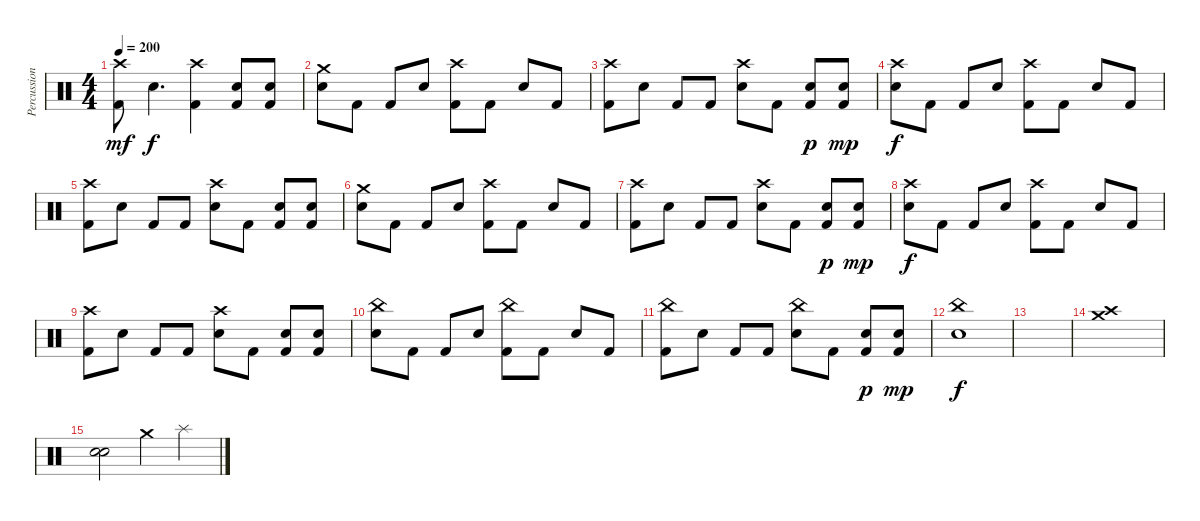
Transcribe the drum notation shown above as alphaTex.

\track ("Percussions" "Percussion") {instrument percussion}
\staff {score}
\articulation defaults
\ts (4 4)
\tempo 200
\clef neutral
\ks c
("Crash high (hit)" "Kick (hit) 2").8{dy mf} "Electric Snare (hit)".4{d dy f} ("Crash high (hit)" "Kick (hit) 2").4 ("Electric Snare (hit)" "Kick (hit) 2").8 ("Electric Snare (hit)" "Kick (hit) 2").8 |
("Crash medium (hit)" "Electric Snare (hit)").8 "Kick (hit) 2".8 "Kick (hit) 2".8 "Electric Snare (hit)".8 ("Crash high (hit)" "Kick (hit) 2").8 "Kick (hit) 2".8 "Electric Snare (hit)".8 "Kick (hit) 2".8 |
("Crash high (hit)" "Kick (hit) 2").8 "Electric Snare (hit)".8 "Kick (hit) 2".8 "Kick (hit) 2".8 ("Crash high (hit)" "Electric Snare (hit)").8 "Kick (hit) 2".8 ("Electric Snare (hit)" "Kick (hit) 2").8{dy p} ("Electric Snare (hit)" "Kick (hit) 2").8{dy mp} |
("Crash high (hit)" "Electric Snare (hit)").8{dy f} "Kick (hit) 2".8 "Kick (hit) 2".8 "Electric Snare (hit)".8 ("Crash high (hit)" "Kick (hit) 2").8 "Kick (hit) 2".8 "Electric Snare (hit)".8 "Kick (hit) 2".8 |
("Crash high (hit)" "Kick (hit) 2").8 "Electric Snare (hit)".8 "Kick (hit) 2".8 "Kick (hit) 2".8 ("Crash high (hit)" "Electric Snare (hit)").8 "Kick (hit) 2".8 ("Electric Snare (hit)" "Kick (hit) 2").8 ("Electric Snare (hit)" "Kick (hit) 2").8 |
("Crash medium (hit)" "Electric Snare (hit)").8 "Kick (hit) 2".8 "Kick (hit) 2".8 "Electric Snare (hit)".8 ("Crash high (hit)" "Kick (hit) 2").8 "Kick (hit) 2".8 "Electric Snare (hit)".8 "Kick (hit) 2".8 |
("Crash high (hit)" "Kick (hit) 2").8 "Electric Snare (hit)".8 "Kick (hit) 2".8 "Kick (hit) 2".8 ("Crash high (hit)" "Electric Snare (hit)").8 "Kick (hit) 2".8 ("Electric Snare (hit)" "Kick (hit) 2").8{dy p} ("Electric Snare (hit)" "Kick (hit) 2").8{dy mp} |
("Crash high (hit)" "Electric Snare (hit)").8{dy f} "Kick (hit) 2".8 "Kick (hit) 2".8 "Electric Snare (hit)".8 ("Crash high (hit)" "Kick (hit) 2").8 "Kick (hit) 2".8 "Electric Snare (hit)".8 "Kick (hit) 2".8 |
("Crash high (hit)" "Kick (hit) 2").8 "Electric Snare (hit)".8 "Kick (hit) 2".8 "Kick (hit) 2".8 ("Crash high (hit)" "Electric Snare (hit)").8 "Kick (hit) 2".8 ("Electric Snare (hit)" "Kick (hit) 2").8 ("Electric Snare (hit)" "Kick (hit) 2").8 |
("China (hit)" "Electric Snare (hit)").8 "Kick (hit) 2".8 "Kick (hit) 2".8 "Electric Snare (hit)".8 ("China (hit)" "Kick (hit) 2").8 "Kick (hit) 2".8 "Electric Snare (hit)".8 "Kick (hit) 2".8 |
("China (hit)" "Kick (hit) 2").8 "Electric Snare (hit)".8 "Kick (hit) 2".8 "Kick (hit) 2".8 ("China (hit)" "Electric Snare (hit)").8 "Kick (hit) 2".8 ("Electric Snare (hit)" "Kick (hit) 2").8{dy p} ("Electric Snare (hit)" "Kick (hit) 2").8{dy mp} |
("China (hit)" "Electric Snare (hit)").1{dy f} |
|
("Crash high (hit)" "Crash medium (hit)").1 |
("Electric Snare (hit)" "Electric Snare (hit)").2 "Crash medium (hit)".4 "Splash (hit)".4
